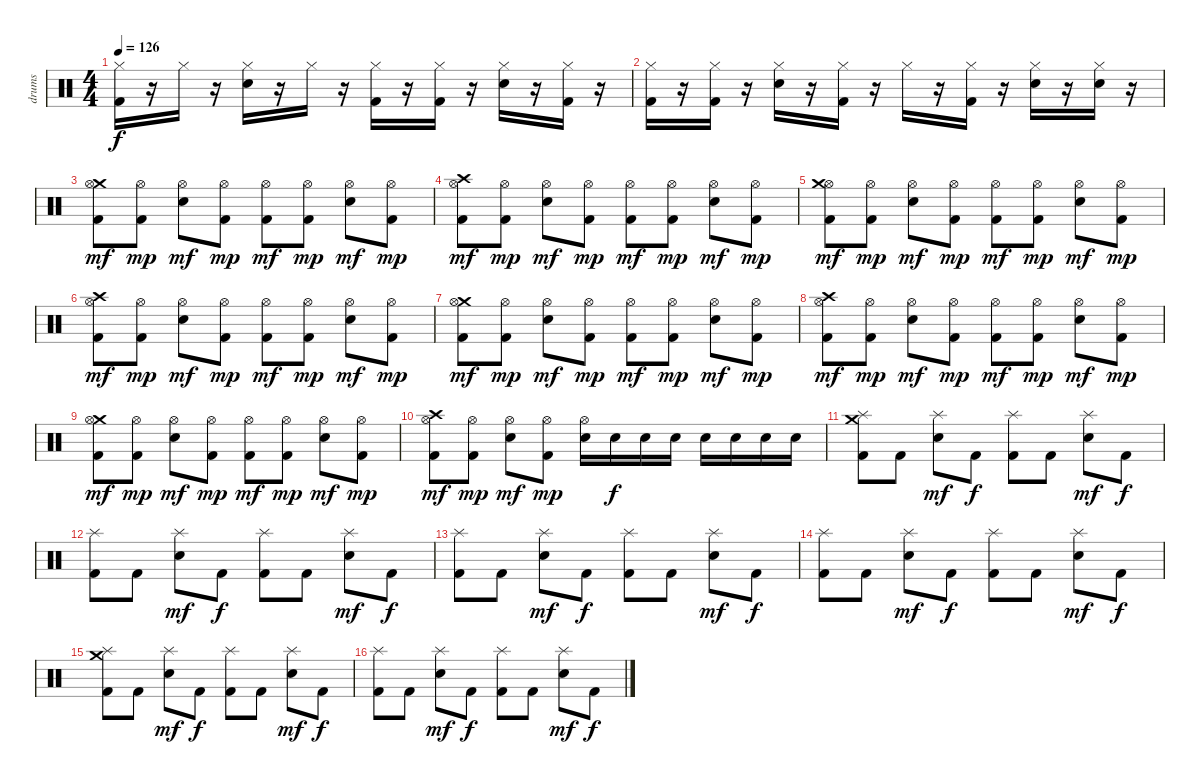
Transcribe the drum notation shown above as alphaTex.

\track ("drums" "drums") {instrument percussion}
\staff {score}
\articulation defaults
\ts (4 4)
\tempo 126
\clef neutral
\ks c
("Kick (hit) 2" "Hi-Hat (closed)").16{dy f} r.16 "Hi-Hat (closed)".16 r.16 ("Hi-Hat (closed)" "Snare (hit) 2").16 r.16 "Hi-Hat (closed)".16 r.16 ("Kick (hit) 2" "Hi-Hat (closed)").16 r.16 ("Kick (hit) 2" "Hi-Hat (closed)").16 r.16 ("Snare (hit) 2" "Hi-Hat (closed)").16 r.16 ("Kick (hit) 2" "Hi-Hat (closed)").16 r.16 |
("Hi-Hat (closed)" "Kick (hit) 2").16 r.16 ("Hi-Hat (closed)" "Kick (hit) 2").16 r.16 ("Hi-Hat (closed)" "Snare (hit) 2").16 r.16 ("Hi-Hat (closed)" "Kick (hit) 2").16 r.16 "Hi-Hat (closed)".16 r.16 ("Hi-Hat (closed)" "Kick (hit) 2").16 r.16 ("Hi-Hat (closed)" "Snare (hit) 2").16 r.16 ("Hi-Hat (closed)" "Snare (hit) 2").16 r.16 |
("Crash medium (hit)" "Kick (hit) 2" "Hi-Hat (open)").8{dy mf} ("Kick (hit) 2" "Hi-Hat (open)").8{dy mp} ("Snare (hit) 2" "Hi-Hat (open)").8{dy mf} ("Kick (hit) 2" "Hi-Hat (open)").8{dy mp} ("Kick (hit) 2" "Hi-Hat (open)").8{dy mf} ("Kick (hit) 2" "Hi-Hat (open)").8{dy mp} ("Snare (hit) 2" "Hi-Hat (open)").8{dy mf} ("Kick (hit) 2" "Hi-Hat (open)").8{dy mp} |
("Crash high (hit)" "Kick (hit) 2" "Hi-Hat (open)").8{dy mf} ("Kick (hit) 2" "Hi-Hat (open)").8{dy mp} ("Snare (hit) 2" "Hi-Hat (open)").8{dy mf} ("Kick (hit) 2" "Hi-Hat (open)").8{dy mp} ("Kick (hit) 2" "Hi-Hat (open)").8{dy mf} ("Kick (hit) 2" "Hi-Hat (open)").8{dy mp} ("Snare (hit) 2" "Hi-Hat (open)").8{dy mf} ("Kick (hit) 2" "Hi-Hat (open)").8{dy mp} |
("Hi-Hat (open)" "Crash medium (hit)" "Kick (hit) 2").8{dy mf} ("Hi-Hat (open)" "Kick (hit) 2").8{dy mp} ("Snare (hit) 2" "Hi-Hat (open)").8{dy mf} ("Kick (hit) 2" "Hi-Hat (open)").8{dy mp} ("Kick (hit) 2" "Hi-Hat (open)").8{dy mf} ("Kick (hit) 2" "Hi-Hat (open)").8{dy mp} ("Snare (hit) 2" "Hi-Hat (open)").8{dy mf} ("Kick (hit) 2" "Hi-Hat (open)").8{dy mp} |
("Crash high (hit)" "Kick (hit) 2" "Hi-Hat (open)").8{dy mf} ("Kick (hit) 2" "Hi-Hat (open)").8{dy mp} ("Snare (hit) 2" "Hi-Hat (open)").8{dy mf} ("Kick (hit) 2" "Hi-Hat (open)").8{dy mp} ("Kick (hit) 2" "Hi-Hat (open)").8{dy mf} ("Kick (hit) 2" "Hi-Hat (open)").8{dy mp} ("Snare (hit) 2" "Hi-Hat (open)").8{dy mf} ("Kick (hit) 2" "Hi-Hat (open)").8{dy mp} |
("Crash medium (hit)" "Kick (hit) 2" "Hi-Hat (open)").8{dy mf} ("Kick (hit) 2" "Hi-Hat (open)").8{dy mp} ("Snare (hit) 2" "Hi-Hat (open)").8{dy mf} ("Kick (hit) 2" "Hi-Hat (open)").8{dy mp} ("Kick (hit) 2" "Hi-Hat (open)").8{dy mf} ("Kick (hit) 2" "Hi-Hat (open)").8{dy mp} ("Snare (hit) 2" "Hi-Hat (open)").8{dy mf} ("Kick (hit) 2" "Hi-Hat (open)").8{dy mp} |
("Crash high (hit)" "Kick (hit) 2" "Hi-Hat (open)").8{dy mf} ("Kick (hit) 2" "Hi-Hat (open)").8{dy mp} ("Snare (hit) 2" "Hi-Hat (open)").8{dy mf} ("Kick (hit) 2" "Hi-Hat (open)").8{dy mp} ("Kick (hit) 2" "Hi-Hat (open)").8{dy mf} ("Kick (hit) 2" "Hi-Hat (open)").8{dy mp} ("Snare (hit) 2" "Hi-Hat (open)").8{dy mf} ("Kick (hit) 2" "Hi-Hat (open)").8{dy mp} |
("Crash medium (hit)" "Hi-Hat (open)" "Kick (hit) 2").8{dy mf} ("Hi-Hat (open)" "Kick (hit) 2").8{dy mp} ("Snare (hit) 2" "Hi-Hat (open)").8{dy mf} ("Kick (hit) 2" "Hi-Hat (open)").8{dy mp} ("Kick (hit) 2" "Hi-Hat (open)").8{dy mf} ("Kick (hit) 2" "Hi-Hat (open)").8{dy mp} ("Snare (hit) 2" "Hi-Hat (open)").8{dy mf} ("Kick (hit) 2" "Hi-Hat (open)").8{dy mp} |
("Hi-Hat (open)" "Crash high (hit)" "Kick (hit) 2").8{dy mf} ("Hi-Hat (open)" "Kick (hit) 2").8{dy mp} ("Snare (hit) 2" "Hi-Hat (open)").8{dy mf} ("Kick (hit) 2" "Hi-Hat (open)").8{dy mp} ("Snare (hit) 2" "Hi-Hat (open)").16 "Snare (hit) 2".16{dy f} "Snare (hit) 2".16 "Snare (hit) 2".16 "Snare (hit) 2".16 "Snare (hit) 2".16 "Snare (hit) 2".16 "Snare (hit) 2".16 |
("Crash medium (hit)" "Kick (hit) 2" "Splash (hit)").8 "Kick (hit) 2".8 ("Snare (hit) 2" "Splash (hit)").8{dy mf} "Kick (hit) 2".8{dy f} ("Kick (hit) 2" "Splash (hit)").8 "Kick (hit) 2".8 ("Snare (hit) 2" "Splash (hit)").8{dy mf} "Kick (hit) 2".8{dy f} |
("Kick (hit) 2" "Splash (hit)").8 "Kick (hit) 2".8 ("Snare (hit) 2" "Splash (hit)").8{dy mf} "Kick (hit) 2".8{dy f} ("Kick (hit) 2" "Splash (hit)").8 "Kick (hit) 2".8 ("Snare (hit) 2" "Splash (hit)").8{dy mf} "Kick (hit) 2".8{dy f} |
("Kick (hit) 2" "Splash (hit)").8 "Kick (hit) 2".8 ("Snare (hit) 2" "Splash (hit)").8{dy mf} "Kick (hit) 2".8{dy f} ("Kick (hit) 2" "Splash (hit)").8 "Kick (hit) 2".8 ("Snare (hit) 2" "Splash (hit)").8{dy mf} "Kick (hit) 2".8{dy f} |
("Kick (hit) 2" "Splash (hit)").8 "Kick (hit) 2".8 ("Snare (hit) 2" "Splash (hit)").8{dy mf} "Kick (hit) 2".8{dy f} ("Kick (hit) 2" "Splash (hit)").8 "Kick (hit) 2".8 ("Snare (hit) 2" "Splash (hit)").8{dy mf} "Kick (hit) 2".8{dy f} |
("Crash medium (hit)" "Kick (hit) 2" "Splash (hit)").8 "Kick (hit) 2".8 ("Snare (hit) 2" "Splash (hit)").8{dy mf} "Kick (hit) 2".8{dy f} ("Kick (hit) 2" "Splash (hit)").8 "Kick (hit) 2".8 ("Snare (hit) 2" "Splash (hit)").8{dy mf} "Kick (hit) 2".8{dy f} |
("Kick (hit) 2" "Splash (hit)").8 "Kick (hit) 2".8 ("Snare (hit) 2" "Splash (hit)").8{dy mf} "Kick (hit) 2".8{dy f} ("Kick (hit) 2" "Splash (hit)").8 "Kick (hit) 2".8 ("Snare (hit) 2" "Splash (hit)").8{dy mf} "Kick (hit) 2".8{dy f}
